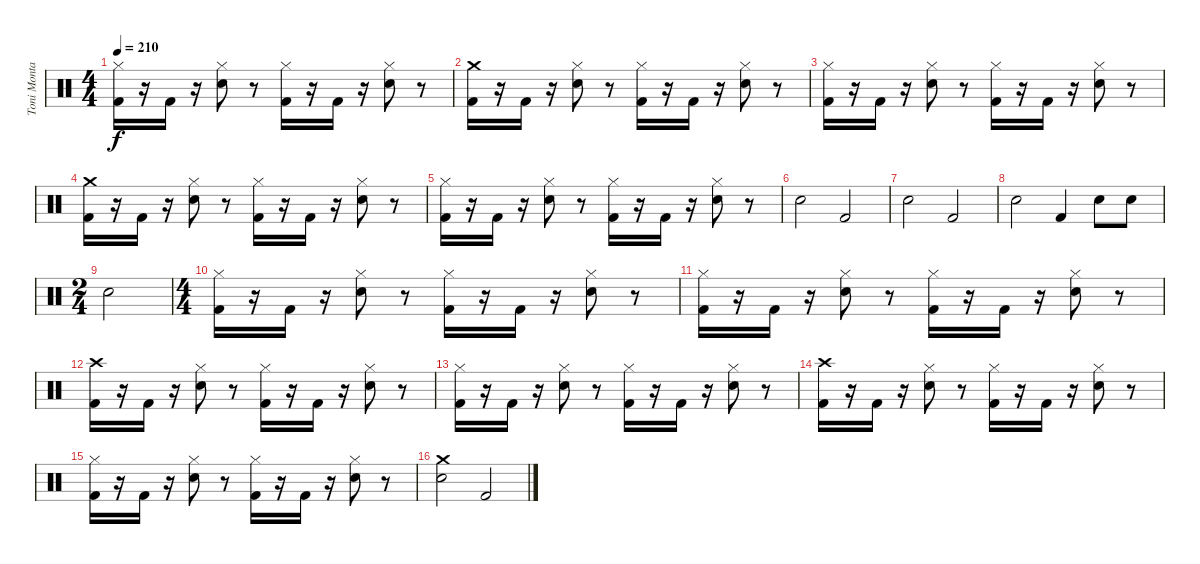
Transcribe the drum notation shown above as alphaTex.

\track ("Toni Montalvo" "Toni Monta") {solo instrument percussion}
\staff {score}
\articulation defaults
\ts (4 4)
\tempo 210
\clef neutral
\ks c
("Kick (hit) 2" "Hi-Hat (closed)").16{dy f} r.16 "Kick (hit) 2".16 r.16 ("Electric Snare (hit)" "Hi-Hat (closed)").8 r.8 ("Kick (hit) 2" "Hi-Hat (closed)").16 r.16 "Kick (hit) 2".16 r.16 ("Electric Snare (hit)" "Hi-Hat (closed)").8 r.8 |
("Kick (hit) 2" "Crash medium (hit)").16 r.16 "Kick (hit) 2".16 r.16 ("Electric Snare (hit)" "Hi-Hat (closed)").8 r.8 ("Kick (hit) 2" "Hi-Hat (closed)").16 r.16 "Kick (hit) 2".16 r.16 ("Electric Snare (hit)" "Hi-Hat (closed)").8 r.8 |
("Kick (hit) 2" "Hi-Hat (closed)").16 r.16 "Kick (hit) 2".16 r.16 ("Electric Snare (hit)" "Hi-Hat (closed)").8 r.8 ("Kick (hit) 2" "Hi-Hat (closed)").16 r.16 "Kick (hit) 2".16 r.16 ("Electric Snare (hit)" "Hi-Hat (closed)").8 r.8 |
("Kick (hit) 2" "Crash medium (hit)").16 r.16 "Kick (hit) 2".16 r.16 ("Electric Snare (hit)" "Hi-Hat (closed)").8 r.8 ("Kick (hit) 2" "Hi-Hat (closed)").16 r.16 "Kick (hit) 2".16 r.16 ("Electric Snare (hit)" "Hi-Hat (closed)").8 r.8 |
("Kick (hit) 2" "Hi-Hat (closed)").16 r.16 "Kick (hit) 2".16 r.16 ("Electric Snare (hit)" "Hi-Hat (closed)").8 r.8 ("Kick (hit) 2" "Hi-Hat (closed)").16 r.16 "Kick (hit) 2".16 r.16 ("Electric Snare (hit)" "Hi-Hat (closed)").8 r.8 |
"Electric Snare (hit)".2 "Kick (hit) 2".2 |
"Electric Snare (hit)".2 "Kick (hit) 2".2 |
"Electric Snare (hit)".2 "Kick (hit) 2".4 "Electric Snare (hit)".8 "Electric Snare (hit)".8 |
\ts (2 4)
"Electric Snare (hit)".2 |
\ts (4 4)
("Kick (hit) 2" "Hi-Hat (closed)").16 r.16 "Kick (hit) 2".16 r.16 ("Electric Snare (hit)" "Hi-Hat (closed)").8 r.8 ("Kick (hit) 2" "Hi-Hat (closed)").16 r.16 "Kick (hit) 2".16 r.16 ("Electric Snare (hit)" "Hi-Hat (closed)").8 r.8 |
("Kick (hit) 2" "Hi-Hat (closed)").16 r.16 "Kick (hit) 2".16 r.16 ("Electric Snare (hit)" "Hi-Hat (closed)").8 r.8 ("Kick (hit) 2" "Hi-Hat (closed)").16 r.16 "Kick (hit) 2".16 r.16 ("Electric Snare (hit)" "Hi-Hat (closed)").8 r.8 |
("Kick (hit) 2" "Crash high (hit)").16 r.16 "Kick (hit) 2".16 r.16 ("Electric Snare (hit)" "Hi-Hat (closed)").8 r.8 ("Kick (hit) 2" "Hi-Hat (closed)").16 r.16 "Kick (hit) 2".16 r.16 ("Electric Snare (hit)" "Hi-Hat (closed)").8 r.8 |
("Kick (hit) 2" "Hi-Hat (closed)").16 r.16 "Kick (hit) 2".16 r.16 ("Electric Snare (hit)" "Hi-Hat (closed)").8 r.8 ("Kick (hit) 2" "Hi-Hat (closed)").16 r.16 "Kick (hit) 2".16 r.16 ("Electric Snare (hit)" "Hi-Hat (closed)").8 r.8 |
("Kick (hit) 2" "Crash high (hit)").16 r.16 "Kick (hit) 2".16 r.16 ("Electric Snare (hit)" "Hi-Hat (closed)").8 r.8 ("Kick (hit) 2" "Hi-Hat (closed)").16 r.16 "Kick (hit) 2".16 r.16 ("Electric Snare (hit)" "Hi-Hat (closed)").8 r.8 |
("Kick (hit) 2" "Hi-Hat (closed)").16 r.16 "Kick (hit) 2".16 r.16 ("Electric Snare (hit)" "Hi-Hat (closed)").8 r.8 ("Kick (hit) 2" "Hi-Hat (closed)").16 r.16 "Kick (hit) 2".16 r.16 ("Electric Snare (hit)" "Hi-Hat (closed)").8 r.8 |
("Electric Snare (hit)" "Crash medium (hit)").2 "Kick (hit) 2".2
